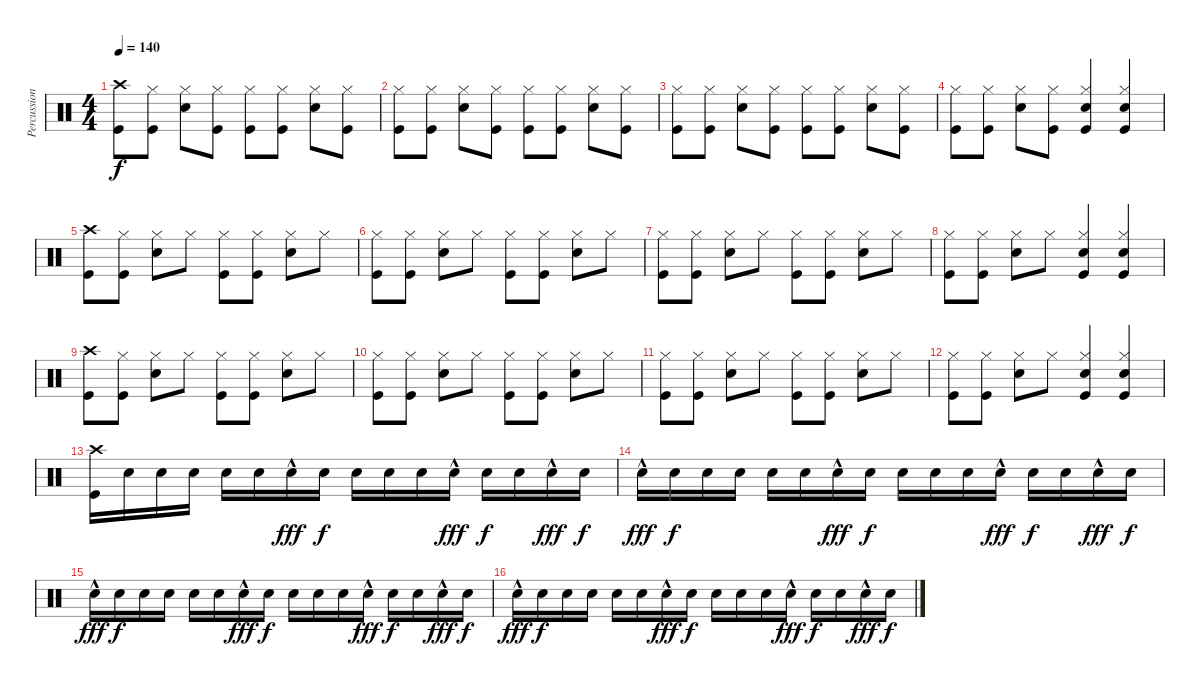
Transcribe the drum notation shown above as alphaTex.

\track ("Percussioni" "Percussion") {instrument percussion}
\staff {score}
\articulation defaults
\ts (4 4)
\tempo 140
\clef neutral
\ks c
("Crash high (hit)" "Kick (hit)").8{dy f} ("Hi-Hat (closed)" "Kick (hit)").8 ("Hi-Hat (closed)" "Snare (hit) 2").8 ("Hi-Hat (closed)" "Kick (hit)").8 ("Hi-Hat (closed)" "Kick (hit)").8 ("Hi-Hat (closed)" "Kick (hit)").8 ("Hi-Hat (closed)" "Snare (hit) 2").8 ("Hi-Hat (closed)" "Kick (hit)").8 |
("Hi-Hat (closed)" "Kick (hit)").8 ("Hi-Hat (closed)" "Kick (hit)").8 ("Hi-Hat (closed)" "Snare (hit) 2").8 ("Hi-Hat (closed)" "Kick (hit)").8 ("Hi-Hat (closed)" "Kick (hit)").8 ("Hi-Hat (closed)" "Kick (hit)").8 ("Hi-Hat (closed)" "Snare (hit) 2").8 ("Hi-Hat (closed)" "Kick (hit)").8 |
("Hi-Hat (closed)" "Kick (hit)").8 ("Hi-Hat (closed)" "Kick (hit)").8 ("Hi-Hat (closed)" "Snare (hit) 2").8 ("Hi-Hat (closed)" "Kick (hit)").8 ("Hi-Hat (closed)" "Kick (hit)").8 ("Hi-Hat (closed)" "Kick (hit)").8 ("Hi-Hat (closed)" "Snare (hit) 2").8 ("Hi-Hat (closed)" "Kick (hit)").8 |
("Hi-Hat (closed)" "Kick (hit)").8 ("Hi-Hat (closed)" "Kick (hit)").8 ("Hi-Hat (closed)" "Snare (hit) 2").8 ("Hi-Hat (closed)" "Kick (hit)").8 ("Hi-Hat (closed)" "Snare (hit) 2" "Kick (hit)").4 ("Hi-Hat (closed)" "Snare (hit) 2" "Kick (hit)").4 |
("Crash high (hit)" "Kick (hit)").8 ("Hi-Hat (closed)" "Kick (hit)").8 ("Hi-Hat (closed)" "Snare (hit) 2").8 "Hi-Hat (closed)".8 ("Hi-Hat (closed)" "Kick (hit)").8 ("Hi-Hat (closed)" "Kick (hit)").8 ("Hi-Hat (closed)" "Snare (hit) 2").8 "Hi-Hat (closed)".8 |
("Hi-Hat (closed)" "Kick (hit)").8 ("Hi-Hat (closed)" "Kick (hit)").8 ("Hi-Hat (closed)" "Snare (hit) 2").8 "Hi-Hat (closed)".8 ("Hi-Hat (closed)" "Kick (hit)").8 ("Hi-Hat (closed)" "Kick (hit)").8 ("Hi-Hat (closed)" "Snare (hit) 2").8 "Hi-Hat (closed)".8 |
("Hi-Hat (closed)" "Kick (hit)").8 ("Hi-Hat (closed)" "Kick (hit)").8 ("Hi-Hat (closed)" "Snare (hit) 2").8 "Hi-Hat (closed)".8 ("Hi-Hat (closed)" "Kick (hit)").8 ("Hi-Hat (closed)" "Kick (hit)").8 ("Hi-Hat (closed)" "Snare (hit) 2").8 "Hi-Hat (closed)".8 |
("Hi-Hat (closed)" "Kick (hit)").8 ("Hi-Hat (closed)" "Kick (hit)").8 ("Hi-Hat (closed)" "Snare (hit) 2").8 "Hi-Hat (closed)".8 ("Hi-Hat (closed)" "Snare (hit) 2" "Kick (hit)").4 ("Hi-Hat (closed)" "Snare (hit) 2" "Kick (hit)").4 |
("Crash high (hit)" "Kick (hit)").8 ("Hi-Hat (closed)" "Kick (hit)").8 ("Hi-Hat (closed)" "Snare (hit) 2").8 "Hi-Hat (closed)".8 ("Hi-Hat (closed)" "Kick (hit)").8 ("Hi-Hat (closed)" "Kick (hit)").8 ("Hi-Hat (closed)" "Snare (hit) 2").8 "Hi-Hat (closed)".8 |
("Hi-Hat (closed)" "Kick (hit)").8 ("Hi-Hat (closed)" "Kick (hit)").8 ("Hi-Hat (closed)" "Snare (hit) 2").8 "Hi-Hat (closed)".8 ("Hi-Hat (closed)" "Kick (hit)").8 ("Hi-Hat (closed)" "Kick (hit)").8 ("Hi-Hat (closed)" "Snare (hit) 2").8 "Hi-Hat (closed)".8 |
("Hi-Hat (closed)" "Kick (hit)").8 ("Hi-Hat (closed)" "Kick (hit)").8 ("Hi-Hat (closed)" "Snare (hit) 2").8 "Hi-Hat (closed)".8 ("Hi-Hat (closed)" "Kick (hit)").8 ("Hi-Hat (closed)" "Kick (hit)").8 ("Hi-Hat (closed)" "Snare (hit) 2").8 "Hi-Hat (closed)".8 |
("Hi-Hat (closed)" "Kick (hit)").8 ("Hi-Hat (closed)" "Kick (hit)").8 ("Hi-Hat (closed)" "Snare (hit) 2").8 "Hi-Hat (closed)".8 ("Hi-Hat (closed)" "Snare (hit) 2" "Kick (hit)").4 ("Hi-Hat (closed)" "Snare (hit) 2" "Kick (hit)").4 |
("Crash high (hit)" "Kick (hit)").16{volume 7} "Snare (hit) 2".16 "Snare (hit) 2".16 "Snare (hit) 2".16 "Snare (hit) 2".16 "Snare (hit) 2".16 "Snare (hit) 2"{hac}.16{dy fff} "Snare (hit) 2".16{dy f} "Snare (hit) 2".16 "Snare (hit) 2".16 "Snare (hit) 2".16 "Snare (hit) 2"{hac}.16{dy fff} "Snare (hit) 2".16{dy f} "Snare (hit) 2".16 "Snare (hit) 2"{hac}.16{dy fff} "Snare (hit) 2".16{dy f} |
"Snare (hit) 2"{hac}.16{dy fff volume 7} "Snare (hit) 2".16{dy f} "Snare (hit) 2".16 "Snare (hit) 2".16 "Snare (hit) 2".16 "Snare (hit) 2".16 "Snare (hit) 2"{hac}.16{dy fff} "Snare (hit) 2".16{dy f} "Snare (hit) 2".16 "Snare (hit) 2".16 "Snare (hit) 2".16 "Snare (hit) 2"{hac}.16{dy fff} "Snare (hit) 2".16{dy f} "Snare (hit) 2".16 "Snare (hit) 2"{hac}.16{dy fff} "Snare (hit) 2".16{dy f} |
"Snare (hit) 2"{hac}.16{dy fff volume 7} "Snare (hit) 2".16{dy f} "Snare (hit) 2".16 "Snare (hit) 2".16 "Snare (hit) 2".16 "Snare (hit) 2".16 "Snare (hit) 2"{hac}.16{dy fff} "Snare (hit) 2".16{dy f} "Snare (hit) 2".16 "Snare (hit) 2".16 "Snare (hit) 2".16 "Snare (hit) 2"{hac}.16{dy fff} "Snare (hit) 2".16{dy f} "Snare (hit) 2".16 "Snare (hit) 2"{hac}.16{dy fff} "Snare (hit) 2".16{dy f} |
"Snare (hit) 2"{hac}.16{dy fff volume 7} "Snare (hit) 2".16{dy f} "Snare (hit) 2".16 "Snare (hit) 2".16 "Snare (hit) 2".16 "Snare (hit) 2".16 "Snare (hit) 2"{hac}.16{dy fff} "Snare (hit) 2".16{dy f} "Snare (hit) 2".16 "Snare (hit) 2".16 "Snare (hit) 2".16 "Snare (hit) 2"{hac}.16{dy fff} "Snare (hit) 2".16{dy f} "Snare (hit) 2".16 "Snare (hit) 2"{hac}.16{dy fff} "Snare (hit) 2".16{dy f}
